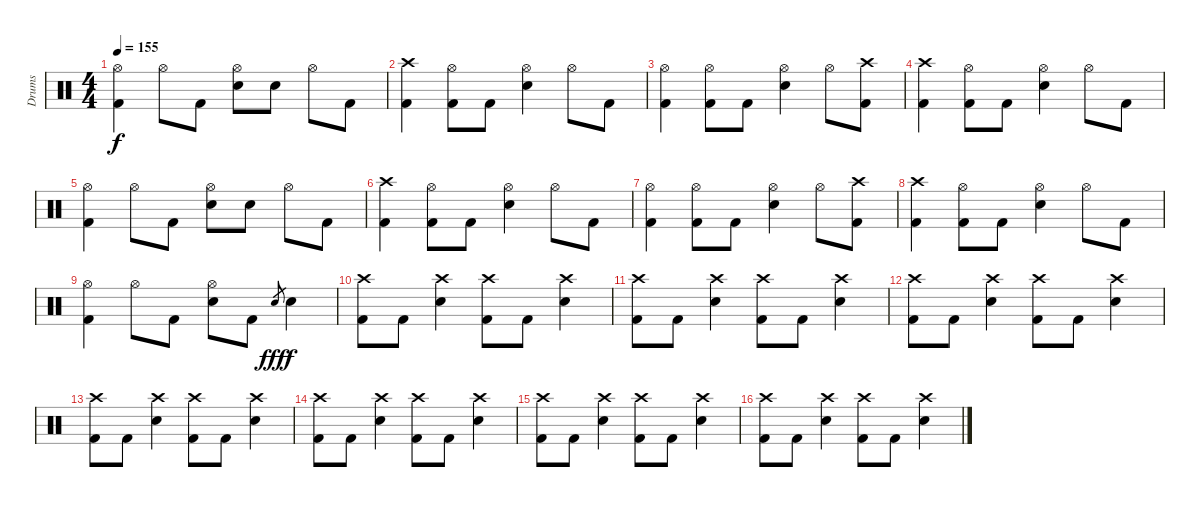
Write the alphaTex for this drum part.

\track ("Drums" "Drums") {instrument percussion}
\staff {score}
\articulation defaults
\ts (4 4)
\tempo 155
\clef neutral
\ks c
("Hi-Hat (open)" "Kick (hit) 2").4{dy f} "Hi-Hat (open)".8 "Kick (hit) 2".8 ("Hi-Hat (open)" "Electric Snare (hit)").8 "Electric Snare (hit)".8 "Hi-Hat (open)".8 "Kick (hit) 2".8 |
("Crash high (hit)" "Kick (hit) 2").4 ("Hi-Hat (open)" "Kick (hit) 2").8 "Kick (hit) 2".8 ("Hi-Hat (open)" "Electric Snare (hit)").4 "Hi-Hat (open)".8 "Kick (hit) 2".8 |
("Hi-Hat (open)" "Kick (hit) 2").4 ("Hi-Hat (open)" "Kick (hit) 2").8 "Kick (hit) 2".8 ("Hi-Hat (open)" "Electric Snare (hit)").4 "Hi-Hat (open)".8 ("Crash high (hit)" "Kick (hit) 2").8 |
("Crash high (hit)" "Kick (hit) 2").4 ("Hi-Hat (open)" "Kick (hit) 2").8 "Kick (hit) 2".8 ("Hi-Hat (open)" "Electric Snare (hit)").4 "Hi-Hat (open)".8 "Kick (hit) 2".8 |
("Hi-Hat (open)" "Kick (hit) 2").4 "Hi-Hat (open)".8 "Kick (hit) 2".8 ("Hi-Hat (open)" "Electric Snare (hit)").8 "Electric Snare (hit)".8 "Hi-Hat (open)".8 "Kick (hit) 2".8 |
("Crash high (hit)" "Kick (hit) 2").4 ("Hi-Hat (open)" "Kick (hit) 2").8 "Kick (hit) 2".8 ("Hi-Hat (open)" "Electric Snare (hit)").4 "Hi-Hat (open)".8 "Kick (hit) 2".8 |
("Hi-Hat (open)" "Kick (hit) 2").4 ("Hi-Hat (open)" "Kick (hit) 2").8 "Kick (hit) 2".8 ("Hi-Hat (open)" "Electric Snare (hit)").4 "Hi-Hat (open)".8 ("Crash high (hit)" "Kick (hit) 2").8 |
("Crash high (hit)" "Kick (hit) 2").4 ("Hi-Hat (open)" "Kick (hit) 2").8 "Kick (hit) 2".8 ("Hi-Hat (open)" "Electric Snare (hit)").4 "Hi-Hat (open)".8 "Kick (hit) 2".8 |
("Hi-Hat (open)" "Kick (hit) 2").4 "Hi-Hat (open)".8 "Kick (hit) 2".8 ("Hi-Hat (open)" "Electric Snare (hit)").8 "Kick (hit) 2".8 "Electric Snare (hit)".8{gr dy fff} "Electric Snare (hit)".4{dy f} |
\section ("" "")
("Crash high (hit)" "Kick (hit) 2").8 "Kick (hit) 2".8 ("Crash high (hit)" "Electric Snare (hit)").4 ("Crash high (hit)" "Kick (hit) 2").8 "Kick (hit) 2".8 ("Crash high (hit)" "Electric Snare (hit)").4 |
("Crash high (hit)" "Kick (hit) 2").8 "Kick (hit) 2".8 ("Crash high (hit)" "Electric Snare (hit)").4 ("Crash high (hit)" "Kick (hit) 2").8 "Kick (hit) 2".8 ("Crash high (hit)" "Electric Snare (hit)").4 |
("Crash high (hit)" "Kick (hit) 2").8 "Kick (hit) 2".8 ("Crash high (hit)" "Electric Snare (hit)").4 ("Crash high (hit)" "Kick (hit) 2").8 "Kick (hit) 2".8 ("Crash high (hit)" "Electric Snare (hit)").4 |
("Crash high (hit)" "Kick (hit) 2").8 "Kick (hit) 2".8 ("Crash high (hit)" "Electric Snare (hit)").4 ("Crash high (hit)" "Kick (hit) 2").8 "Kick (hit) 2".8 ("Crash high (hit)" "Electric Snare (hit)").4 |
("Crash high (hit)" "Kick (hit) 2").8 "Kick (hit) 2".8 ("Crash high (hit)" "Electric Snare (hit)").4 ("Crash high (hit)" "Kick (hit) 2").8 "Kick (hit) 2".8 ("Crash high (hit)" "Electric Snare (hit)").4 |
("Crash high (hit)" "Kick (hit) 2").8 "Kick (hit) 2".8 ("Crash high (hit)" "Electric Snare (hit)").4 ("Crash high (hit)" "Kick (hit) 2").8 "Kick (hit) 2".8 ("Crash high (hit)" "Electric Snare (hit)").4 |
("Crash high (hit)" "Kick (hit) 2").8 "Kick (hit) 2".8 ("Crash high (hit)" "Electric Snare (hit)").4 ("Crash high (hit)" "Kick (hit) 2").8 "Kick (hit) 2".8 ("Crash high (hit)" "Electric Snare (hit)").4
